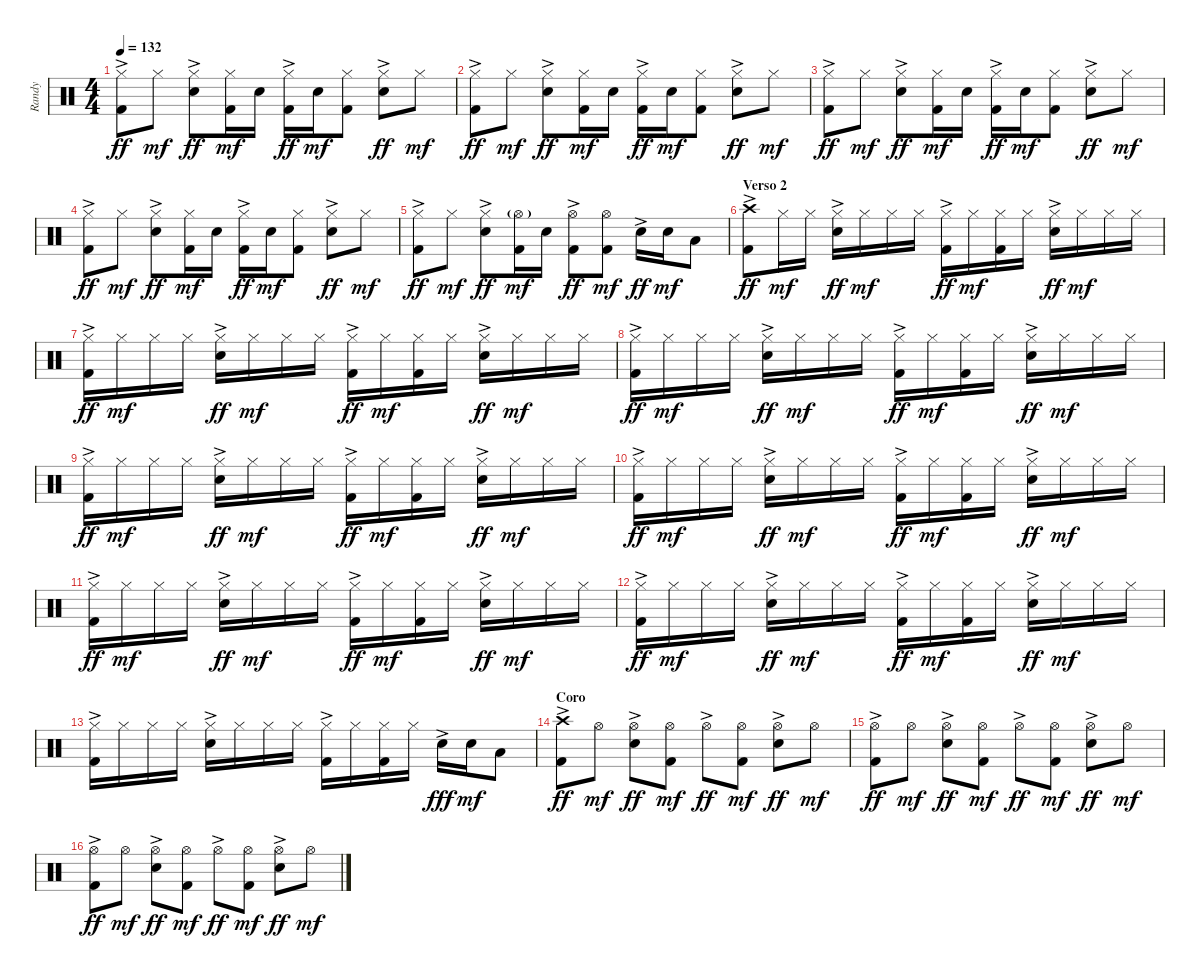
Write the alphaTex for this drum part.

\track ("Randy" "Randy") {instrument percussion}
\staff {score}
\articulation defaults
\ts (4 4)
\tempo 132
\clef neutral
\ks c
("Hi-Hat (closed)"{ac} "Kick (hit) 2").8{dy ff} "Hi-Hat (closed)".8{dy mf} ("Hi-Hat (closed)"{ac} "Snare (hit) 2").8{dy ff} ("Hi-Hat (closed)" "Kick (hit) 2").16{dy mf} "Snare (hit) 2".16 ("Hi-Hat (closed)"{ac} "Kick (hit) 2").16{dy ff} "Snare (hit) 2".16{dy mf} ("Hi-Hat (closed)" "Kick (hit) 2").8 ("Hi-Hat (closed)"{ac} "Snare (hit) 2").8{dy ff} "Hi-Hat (closed)".8{dy mf} |
("Hi-Hat (closed)"{ac} "Kick (hit) 2").8{dy ff} "Hi-Hat (closed)".8{dy mf} ("Hi-Hat (closed)"{ac} "Snare (hit) 2").8{dy ff} ("Hi-Hat (closed)" "Kick (hit) 2").16{dy mf} "Snare (hit) 2".16 ("Hi-Hat (closed)"{ac} "Kick (hit) 2").16{dy ff} "Snare (hit) 2".16{dy mf} ("Hi-Hat (closed)" "Kick (hit) 2").8 ("Hi-Hat (closed)"{ac} "Snare (hit) 2").8{dy ff} "Hi-Hat (closed)".8{dy mf} |
("Hi-Hat (closed)"{ac} "Kick (hit) 2").8{dy ff} "Hi-Hat (closed)".8{dy mf} ("Hi-Hat (closed)"{ac} "Snare (hit) 2").8{dy ff} ("Hi-Hat (closed)" "Kick (hit) 2").16{dy mf} "Snare (hit) 2".16 ("Hi-Hat (closed)"{ac} "Kick (hit) 2").16{dy ff} "Snare (hit) 2".16{dy mf} ("Hi-Hat (closed)" "Kick (hit) 2").8 ("Hi-Hat (closed)"{ac} "Snare (hit) 2").8{dy ff} "Hi-Hat (closed)".8{dy mf} |
("Hi-Hat (closed)"{ac} "Kick (hit) 2").8{dy ff} "Hi-Hat (closed)".8{dy mf} ("Hi-Hat (closed)"{ac} "Snare (hit) 2").8{dy ff} ("Hi-Hat (closed)" "Kick (hit) 2").16{dy mf} "Snare (hit) 2".16 ("Hi-Hat (closed)"{ac} "Kick (hit) 2").16{dy ff} "Snare (hit) 2".16{dy mf} ("Hi-Hat (closed)" "Kick (hit) 2").8 ("Hi-Hat (closed)"{ac} "Snare (hit) 2").8{dy ff} "Hi-Hat (closed)".8{dy mf} |
("Hi-Hat (closed)"{ac} "Kick (hit) 2").8{dy ff} "Hi-Hat (closed)".8{dy mf} ("Hi-Hat (closed)"{ac} "Snare (hit) 2").8{dy ff} ("Hi-Hat (open)"{g} "Kick (hit) 2").16{dy mf} "Snare (hit) 2".16 ("Hi-Hat (open)"{ac} "Kick (hit) 2").8{dy ff} ("Hi-Hat (open)" "Kick (hit) 2").8{dy mf} "Snare (hit) 2"{ac}.16{dy ff} "Snare (hit) 2".16{dy mf} "Low Tom (hit)".8 |
\section ("" "Verso 2")
("Crash high (hit)"{ac} "Kick (hit) 2").8{dy ff} "Hi-Hat (closed)".16{dy mf} "Hi-Hat (closed)".16 ("Hi-Hat (closed)"{ac} "Snare (hit) 2").16{dy ff} "Hi-Hat (closed)".16{dy mf} "Hi-Hat (closed)".16 "Hi-Hat (closed)".16 ("Hi-Hat (closed)"{ac} "Kick (hit) 2").16{dy ff} "Hi-Hat (closed)".16{dy mf} ("Hi-Hat (closed)" "Kick (hit) 2").16 "Hi-Hat (closed)".16 ("Hi-Hat (closed)"{ac} "Snare (hit) 2").16{dy ff} "Hi-Hat (closed)".16{dy mf} "Hi-Hat (closed)".16 "Hi-Hat (closed)".16 |
("Hi-Hat (closed)"{ac} "Kick (hit) 2").16{dy ff} "Hi-Hat (closed)".16{dy mf} "Hi-Hat (closed)".16 "Hi-Hat (closed)".16 ("Hi-Hat (closed)"{ac} "Snare (hit) 2").16{dy ff} "Hi-Hat (closed)".16{dy mf} "Hi-Hat (closed)".16 "Hi-Hat (closed)".16 ("Hi-Hat (closed)"{ac} "Kick (hit) 2").16{dy ff} "Hi-Hat (closed)".16{dy mf} ("Hi-Hat (closed)" "Kick (hit) 2").16 "Hi-Hat (closed)".16 ("Hi-Hat (closed)"{ac} "Snare (hit) 2").16{dy ff} "Hi-Hat (closed)".16{dy mf} "Hi-Hat (closed)".16 "Hi-Hat (closed)".16 |
("Hi-Hat (closed)"{ac} "Kick (hit) 2").16{dy ff} "Hi-Hat (closed)".16{dy mf} "Hi-Hat (closed)".16 "Hi-Hat (closed)".16 ("Hi-Hat (closed)"{ac} "Snare (hit) 2").16{dy ff} "Hi-Hat (closed)".16{dy mf} "Hi-Hat (closed)".16 "Hi-Hat (closed)".16 ("Hi-Hat (closed)"{ac} "Kick (hit) 2").16{dy ff} "Hi-Hat (closed)".16{dy mf} ("Hi-Hat (closed)" "Kick (hit) 2").16 "Hi-Hat (closed)".16 ("Hi-Hat (closed)"{ac} "Snare (hit) 2").16{dy ff} "Hi-Hat (closed)".16{dy mf} "Hi-Hat (closed)".16 "Hi-Hat (closed)".16 |
("Hi-Hat (closed)"{ac} "Kick (hit) 2").16{dy ff} "Hi-Hat (closed)".16{dy mf} "Hi-Hat (closed)".16 "Hi-Hat (closed)".16 ("Hi-Hat (closed)"{ac} "Snare (hit) 2").16{dy ff} "Hi-Hat (closed)".16{dy mf} "Hi-Hat (closed)".16 "Hi-Hat (closed)".16 ("Hi-Hat (closed)"{ac} "Kick (hit) 2").16{dy ff} "Hi-Hat (closed)".16{dy mf} ("Hi-Hat (closed)" "Kick (hit) 2").16 "Hi-Hat (closed)".16 ("Hi-Hat (closed)"{ac} "Snare (hit) 2").16{dy ff} "Hi-Hat (closed)".16{dy mf} "Hi-Hat (closed)".16 "Hi-Hat (closed)".16 |
("Hi-Hat (closed)"{ac} "Kick (hit) 2").16{dy ff} "Hi-Hat (closed)".16{dy mf} "Hi-Hat (closed)".16 "Hi-Hat (closed)".16 ("Hi-Hat (closed)"{ac} "Snare (hit) 2").16{dy ff} "Hi-Hat (closed)".16{dy mf} "Hi-Hat (closed)".16 "Hi-Hat (closed)".16 ("Hi-Hat (closed)"{ac} "Kick (hit) 2").16{dy ff} "Hi-Hat (closed)".16{dy mf} ("Hi-Hat (closed)" "Kick (hit) 2").16 "Hi-Hat (closed)".16 ("Hi-Hat (closed)"{ac} "Snare (hit) 2").16{dy ff} "Hi-Hat (closed)".16{dy mf} "Hi-Hat (closed)".16 "Hi-Hat (closed)".16 |
("Hi-Hat (closed)"{ac} "Kick (hit) 2").16{dy ff} "Hi-Hat (closed)".16{dy mf} "Hi-Hat (closed)".16 "Hi-Hat (closed)".16 ("Hi-Hat (closed)"{ac} "Snare (hit) 2").16{dy ff} "Hi-Hat (closed)".16{dy mf} "Hi-Hat (closed)".16 "Hi-Hat (closed)".16 ("Hi-Hat (closed)"{ac} "Kick (hit) 2").16{dy ff} "Hi-Hat (closed)".16{dy mf} ("Hi-Hat (closed)" "Kick (hit) 2").16 "Hi-Hat (closed)".16 ("Hi-Hat (closed)"{ac} "Snare (hit) 2").16{dy ff} "Hi-Hat (closed)".16{dy mf} "Hi-Hat (closed)".16 "Hi-Hat (closed)".16 |
("Hi-Hat (closed)"{ac} "Kick (hit) 2").16{dy ff} "Hi-Hat (closed)".16{dy mf} "Hi-Hat (closed)".16 "Hi-Hat (closed)".16 ("Hi-Hat (closed)"{ac} "Snare (hit) 2").16{dy ff} "Hi-Hat (closed)".16{dy mf} "Hi-Hat (closed)".16 "Hi-Hat (closed)".16 ("Hi-Hat (closed)"{ac} "Kick (hit) 2").16{dy ff} "Hi-Hat (closed)".16{dy mf} ("Hi-Hat (closed)" "Kick (hit) 2").16 "Hi-Hat (closed)".16 ("Hi-Hat (closed)"{ac} "Snare (hit) 2").16{dy ff} "Hi-Hat (closed)".16{dy mf} "Hi-Hat (closed)".16 "Hi-Hat (closed)".16 |
("Hi-Hat (closed)"{ac} "Kick (hit) 2").16 "Hi-Hat (closed)".16 "Hi-Hat (closed)".16 "Hi-Hat (closed)".16 ("Hi-Hat (closed)"{ac} "Snare (hit) 2").16 "Hi-Hat (closed)".16 "Hi-Hat (closed)".16 "Hi-Hat (closed)".16 ("Hi-Hat (closed)"{ac} "Kick (hit) 2").16 "Hi-Hat (closed)".16 ("Hi-Hat (closed)" "Kick (hit) 2").16 "Hi-Hat (closed)".16 "Snare (hit) 2"{ac}.16{dy fff} "Snare (hit) 2".16{dy mf} "Low Tom (hit)".8 |
\section ("" "Coro")
("Crash high (hit)"{ac} "Kick (hit) 2").8{dy ff} "Hi-Hat (open)".8{dy mf} ("Hi-Hat (open)"{ac} "Snare (hit) 2").8{dy ff} ("Hi-Hat (open)" "Kick (hit) 2").8{dy mf} "Hi-Hat (open)"{ac}.8{dy ff} ("Hi-Hat (open)" "Kick (hit) 2").8{dy mf} ("Hi-Hat (open)"{ac} "Snare (hit) 2").8{dy ff} "Hi-Hat (open)".8{dy mf} |
("Hi-Hat (open)"{ac} "Kick (hit) 2").8{dy ff} "Hi-Hat (open)".8{dy mf} ("Hi-Hat (open)"{ac} "Snare (hit) 2").8{dy ff} ("Hi-Hat (open)" "Kick (hit) 2").8{dy mf} "Hi-Hat (open)"{ac}.8{dy ff} ("Hi-Hat (open)" "Kick (hit) 2").8{dy mf} ("Hi-Hat (open)"{ac} "Snare (hit) 2").8{dy ff} "Hi-Hat (open)".8{dy mf} |
("Hi-Hat (open)"{ac} "Kick (hit) 2").8{dy ff} "Hi-Hat (open)".8{dy mf} ("Hi-Hat (open)"{ac} "Snare (hit) 2").8{dy ff} ("Hi-Hat (open)" "Kick (hit) 2").8{dy mf} "Hi-Hat (open)"{ac}.8{dy ff} ("Hi-Hat (open)" "Kick (hit) 2").8{dy mf} ("Hi-Hat (open)"{ac} "Snare (hit) 2").8{dy ff} "Hi-Hat (open)".8{dy mf}
